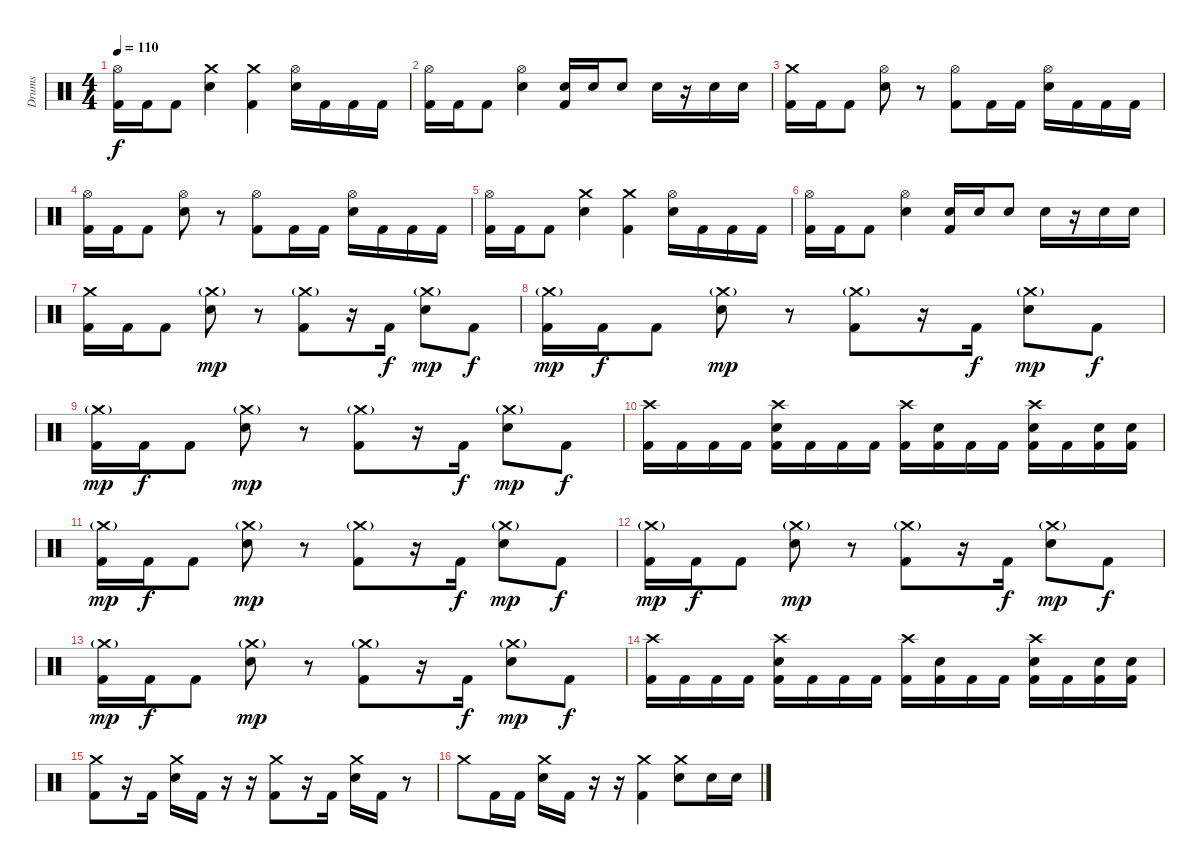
\track ("Drums" "Drums") {instrument percussion}
\staff {score}
\articulation defaults
\ts (4 4)
\tempo 110
\clef neutral
\ks c
("Hi-Hat (open)" "Kick (hit) 2").16{dy f} "Kick (hit) 2".16 "Kick (hit) 2".8 ("Crash medium (hit)" "Electric Snare (hit)").4 ("Crash medium (hit)" "Kick (hit) 2").4 ("Hi-Hat (open)" "Electric Snare (hit)").16 "Kick (hit) 2".16 "Kick (hit) 2".16 "Kick (hit) 2".16 |
("Hi-Hat (open)" "Kick (hit) 2").16 "Kick (hit) 2".16 "Kick (hit) 2".8 ("Hi-Hat (open)" "Electric Snare (hit)").4 ("Electric Snare (hit)" "Kick (hit) 2").16 "Electric Snare (hit)".16 "Electric Snare (hit)".8 "Electric Snare (hit)".16 r.16 "Electric Snare (hit)".16 "Electric Snare (hit)".16 |
("Crash medium (hit)" "Kick (hit) 2").16 "Kick (hit) 2".16 "Kick (hit) 2".8 ("Hi-Hat (open)" "Electric Snare (hit)").8 r.8 ("Hi-Hat (open)" "Kick (hit) 2").8 "Kick (hit) 2".16 "Kick (hit) 2".16 ("Hi-Hat (open)" "Electric Snare (hit)").16 "Kick (hit) 2".16 "Kick (hit) 2".16 "Kick (hit) 2".16 |
("Hi-Hat (open)" "Kick (hit) 2").16 "Kick (hit) 2".16 "Kick (hit) 2".8 ("Hi-Hat (open)" "Electric Snare (hit)").8 r.8 ("Hi-Hat (open)" "Kick (hit) 2").8 "Kick (hit) 2".16 "Kick (hit) 2".16 ("Hi-Hat (open)" "Electric Snare (hit)").16 "Kick (hit) 2".16 "Kick (hit) 2".16 "Kick (hit) 2".16 |
("Hi-Hat (open)" "Kick (hit) 2").16 "Kick (hit) 2".16 "Kick (hit) 2".8 ("Crash medium (hit)" "Electric Snare (hit)").4 ("Crash medium (hit)" "Kick (hit) 2").4 ("Hi-Hat (open)" "Electric Snare (hit)").16 "Kick (hit) 2".16 "Kick (hit) 2".16 "Kick (hit) 2".16 |
("Hi-Hat (open)" "Kick (hit) 2").16 "Kick (hit) 2".16 "Kick (hit) 2".8 ("Hi-Hat (open)" "Electric Snare (hit)").4 ("Electric Snare (hit)" "Kick (hit) 2").16 "Electric Snare (hit)".16 "Electric Snare (hit)".8 "Electric Snare (hit)".16 r.16 "Electric Snare (hit)".16 "Electric Snare (hit)".16 |
("Crash medium (hit)" "Kick (hit) 2").16 "Kick (hit) 2".16 "Kick (hit) 2".8 ("Crash medium (hit)"{g} "Electric Snare (hit)").8{dy mp} r.8 ("Crash medium (hit)"{g} "Kick (hit) 2").8 r.16 "Kick (hit) 2".16{dy f} ("Crash medium (hit)"{g} "Electric Snare (hit)").8{dy mp} "Kick (hit) 2".8{dy f} |
("Crash medium (hit)"{g} "Kick (hit) 2").16{dy mp} "Kick (hit) 2".16{dy f} "Kick (hit) 2".8 ("Crash medium (hit)"{g} "Electric Snare (hit)").8{dy mp} r.8 ("Crash medium (hit)"{g} "Kick (hit) 2").8 r.16 "Kick (hit) 2".16{dy f} ("Crash medium (hit)"{g} "Electric Snare (hit)").8{dy mp} "Kick (hit) 2".8{dy f} |
("Crash medium (hit)"{g} "Kick (hit) 2").16{dy mp} "Kick (hit) 2".16{dy f} "Kick (hit) 2".8 ("Crash medium (hit)"{g} "Electric Snare (hit)").8{dy mp} r.8 ("Crash medium (hit)"{g} "Kick (hit) 2").8 r.16 "Kick (hit) 2".16{dy f} ("Crash medium (hit)"{g} "Electric Snare (hit)").8{dy mp} "Kick (hit) 2".8{dy f} |
("Crash high (hit)" "Kick (hit) 2").16 "Kick (hit) 2".16 "Kick (hit) 2".16 "Kick (hit) 2".16 ("Crash high (hit)" "Electric Snare (hit)" "Kick (hit) 2").16 "Kick (hit) 2".16 "Kick (hit) 2".16 "Kick (hit) 2".16 ("Crash high (hit)" "Kick (hit) 2").16 ("Electric Snare (hit)" "Kick (hit) 2").16 "Kick (hit) 2".16 "Kick (hit) 2".16 ("Crash high (hit)" "Electric Snare (hit)" "Kick (hit) 2").16 "Kick (hit) 2".16 ("Electric Snare (hit)" "Kick (hit) 2").16 ("Electric Snare (hit)" "Kick (hit) 2").16 |
("Crash medium (hit)"{g} "Kick (hit) 2").16{dy mp} "Kick (hit) 2".16{dy f} "Kick (hit) 2".8 ("Crash medium (hit)"{g} "Electric Snare (hit)").8{dy mp} r.8 ("Crash medium (hit)"{g} "Kick (hit) 2").8 r.16 "Kick (hit) 2".16{dy f} ("Crash medium (hit)"{g} "Electric Snare (hit)").8{dy mp} "Kick (hit) 2".8{dy f} |
("Crash medium (hit)"{g} "Kick (hit) 2").16{dy mp} "Kick (hit) 2".16{dy f} "Kick (hit) 2".8 ("Crash medium (hit)"{g} "Electric Snare (hit)").8{dy mp} r.8 ("Crash medium (hit)"{g} "Kick (hit) 2").8 r.16 "Kick (hit) 2".16{dy f} ("Crash medium (hit)"{g} "Electric Snare (hit)").8{dy mp} "Kick (hit) 2".8{dy f} |
("Crash medium (hit)"{g} "Kick (hit) 2").16{dy mp} "Kick (hit) 2".16{dy f} "Kick (hit) 2".8 ("Crash medium (hit)"{g} "Electric Snare (hit)").8{dy mp} r.8 ("Crash medium (hit)"{g} "Kick (hit) 2").8 r.16 "Kick (hit) 2".16{dy f} ("Crash medium (hit)"{g} "Electric Snare (hit)").8{dy mp} "Kick (hit) 2".8{dy f} |
("Crash high (hit)" "Kick (hit) 2").16 "Kick (hit) 2".16 "Kick (hit) 2".16 "Kick (hit) 2".16 ("Crash high (hit)" "Electric Snare (hit)" "Kick (hit) 2").16 "Kick (hit) 2".16 "Kick (hit) 2".16 "Kick (hit) 2".16 ("Crash high (hit)" "Kick (hit) 2").16 ("Electric Snare (hit)" "Kick (hit) 2").16 "Kick (hit) 2".16 "Kick (hit) 2".16 ("Crash high (hit)" "Electric Snare (hit)" "Kick (hit) 2").16 "Kick (hit) 2".16 ("Electric Snare (hit)" "Kick (hit) 2").16 ("Electric Snare (hit)" "Kick (hit) 2").16 |
("Crash medium (hit)" "Kick (hit) 2").8 r.16 "Kick (hit) 2".16 ("Crash medium (hit)" "Electric Snare (hit)").16 "Kick (hit) 2".16 r.16 r.16 ("Crash medium (hit)" "Kick (hit) 2").8 r.16 "Kick (hit) 2".16 ("Crash medium (hit)" "Electric Snare (hit)").16 "Kick (hit) 2".16 r.8 |
"Crash medium (hit)".8 "Kick (hit) 2".16 "Kick (hit) 2".16 ("Crash medium (hit)" "Electric Snare (hit)").16 "Kick (hit) 2".16 r.16 r.16 ("Crash medium (hit)" "Kick (hit) 2").4 ("Crash medium (hit)" "Electric Snare (hit)").8 "Electric Snare (hit)".16 "Electric Snare (hit)".16
